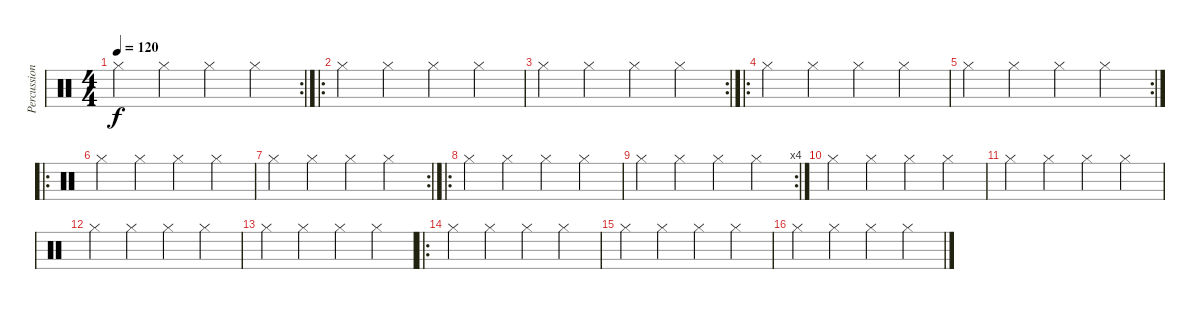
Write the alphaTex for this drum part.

\track ("Percussioni" "Percussion") {instrument percussion}
\staff {score}
\articulation defaults
\rc 2
\ts (4 4)
\tempo 120
\clef neutral
\ks c "Hi-Hat (closed)".4{dy f} "Hi-Hat (closed)".4 "Hi-Hat (closed)".4 "Hi-Hat (closed)".4
|
\ro "Hi-Hat (closed)".4 "Hi-Hat (closed)".4 "Hi-Hat (closed)".4 "Hi-Hat (closed)".4
|
\rc 2 "Hi-Hat (closed)".4 "Hi-Hat (closed)".4 "Hi-Hat (closed)".4 "Hi-Hat (closed)".4
|
\ro "Hi-Hat (closed)".4 "Hi-Hat (closed)".4 "Hi-Hat (closed)".4 "Hi-Hat (closed)".4
|
\rc 2 "Hi-Hat (closed)".4 "Hi-Hat (closed)".4 "Hi-Hat (closed)".4 "Hi-Hat (closed)".4
|
\ro "Hi-Hat (closed)".4 "Hi-Hat (closed)".4 "Hi-Hat (closed)".4 "Hi-Hat (closed)".4
|
\rc 2 "Hi-Hat (closed)".4 "Hi-Hat (closed)".4 "Hi-Hat (closed)".4 "Hi-Hat (closed)".4
|
\ro "Hi-Hat (closed)".4 "Hi-Hat (closed)".4 "Hi-Hat (closed)".4 "Hi-Hat (closed)".4
|
\rc 4 "Hi-Hat (closed)".4 "Hi-Hat (closed)".4 "Hi-Hat (closed)".4 "Hi-Hat (closed)".4
|
"Hi-Hat (closed)".4 "Hi-Hat (closed)".4 "Hi-Hat (closed)".4 "Hi-Hat (closed)".4 |
"Hi-Hat (closed)".4 "Hi-Hat (closed)".4 "Hi-Hat (closed)".4 "Hi-Hat (closed)".4 |
"Hi-Hat (closed)".4 "Hi-Hat (closed)".4 "Hi-Hat (closed)".4 "Hi-Hat (closed)".4 |
"Hi-Hat (closed)".4 "Hi-Hat (closed)".4 "Hi-Hat (closed)".4 "Hi-Hat (closed)".4 |
\ro "Hi-Hat (closed)".4 "Hi-Hat (closed)".4 "Hi-Hat (closed)".4 "Hi-Hat (closed)".4
|
"Hi-Hat (closed)".4 "Hi-Hat (closed)".4 "Hi-Hat (closed)".4 "Hi-Hat (closed)".4 |
"Hi-Hat (closed)".4 "Hi-Hat (closed)".4 "Hi-Hat (closed)".4 "Hi-Hat (closed)".4
